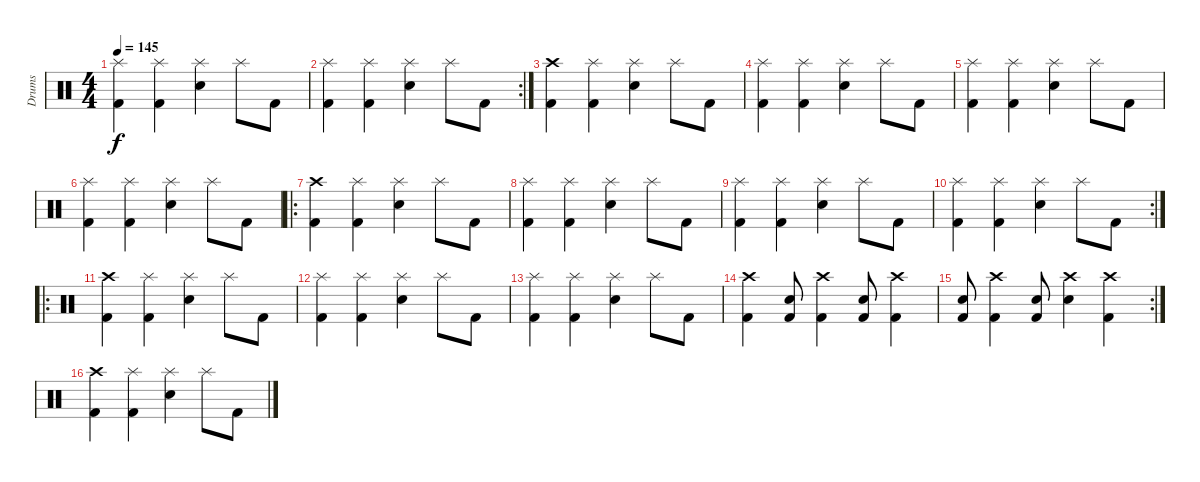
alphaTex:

\track ("Drums" "Drums") {instrument percussion}
\staff {score}
\articulation defaults
\ts (4 4)
\tempo 145
\clef neutral
\ks c
("Kick (hit) 2" "Splash (hit)").4{dy f} ("Kick (hit) 2" "Splash (hit)").4 ("Snare (hit) 2" "Splash (hit)").4 "Splash (hit)".8 "Kick (hit) 2".8 |
\rc 2
("Kick (hit) 2" "Splash (hit)").4 ("Kick (hit) 2" "Splash (hit)").4 ("Snare (hit) 2" "Splash (hit)").4 "Splash (hit)".8 "Kick (hit) 2".8 |
("Kick (hit) 2" "Crash high (hit)").4 ("Kick (hit) 2" "Splash (hit)").4 ("Snare (hit) 2" "Splash (hit)").4 "Splash (hit)".8 "Kick (hit) 2".8 |
("Kick (hit) 2" "Splash (hit)").4 ("Kick (hit) 2" "Splash (hit)").4 ("Snare (hit) 2" "Splash (hit)").4 "Splash (hit)".8 "Kick (hit) 2".8 |
("Kick (hit) 2" "Splash (hit)").4 ("Kick (hit) 2" "Splash (hit)").4 ("Snare (hit) 2" "Splash (hit)").4 "Splash (hit)".8 "Kick (hit) 2".8 |
("Kick (hit) 2" "Splash (hit)").4 ("Kick (hit) 2" "Splash (hit)").4 ("Snare (hit) 2" "Splash (hit)").4 "Splash (hit)".8 "Kick (hit) 2".8 |
\ro
("Kick (hit) 2" "Crash high (hit)").4 ("Kick (hit) 2" "Splash (hit)").4 ("Snare (hit) 2" "Splash (hit)").4 "Splash (hit)".8 "Kick (hit) 2".8 |
("Kick (hit) 2" "Splash (hit)").4 ("Kick (hit) 2" "Splash (hit)").4 ("Snare (hit) 2" "Splash (hit)").4 "Splash (hit)".8 "Kick (hit) 2".8 |
("Kick (hit) 2" "Splash (hit)").4 ("Kick (hit) 2" "Splash (hit)").4 ("Snare (hit) 2" "Splash (hit)").4 "Splash (hit)".8 "Kick (hit) 2".8 |
\rc 2
("Kick (hit) 2" "Splash (hit)").4 ("Kick (hit) 2" "Splash (hit)").4 ("Snare (hit) 2" "Splash (hit)").4 "Splash (hit)".8 "Kick (hit) 2".8 |
\ro
("Kick (hit) 2" "Crash high (hit)").4 ("Kick (hit) 2" "Splash (hit)").4 ("Snare (hit) 2" "Splash (hit)").4 "Splash (hit)".8 "Kick (hit) 2".8 |
("Kick (hit) 2" "Splash (hit)").4 ("Kick (hit) 2" "Splash (hit)").4 ("Snare (hit) 2" "Splash (hit)").4 "Splash (hit)".8 "Kick (hit) 2".8 |
("Kick (hit) 2" "Splash (hit)").4 ("Kick (hit) 2" "Splash (hit)").4 ("Snare (hit) 2" "Splash (hit)").4 "Splash (hit)".8 "Kick (hit) 2".8 |
("Kick (hit) 2" "Crash high (hit)").4 ("Kick (hit) 2" "Snare (hit) 2").8 ("Kick (hit) 2" "Crash high (hit)").4 ("Kick (hit) 2" "Snare (hit) 2").8 ("Kick (hit) 2" "Crash high (hit)").4 |
\rc 2
("Kick (hit) 2" "Snare (hit) 2").8 ("Kick (hit) 2" "Crash high (hit)").4 ("Kick (hit) 2" "Snare (hit) 2").8 ("Hand Clap (hit)" "Crash high (hit)").4 ("Kick (hit) 2" "Crash high (hit)").4 |
("Kick (hit) 2" "Crash high (hit)").4 ("Kick (hit) 2" "Splash (hit)").4 ("Snare (hit) 2" "Splash (hit)").4 "Splash (hit)".8 "Kick (hit) 2".8
